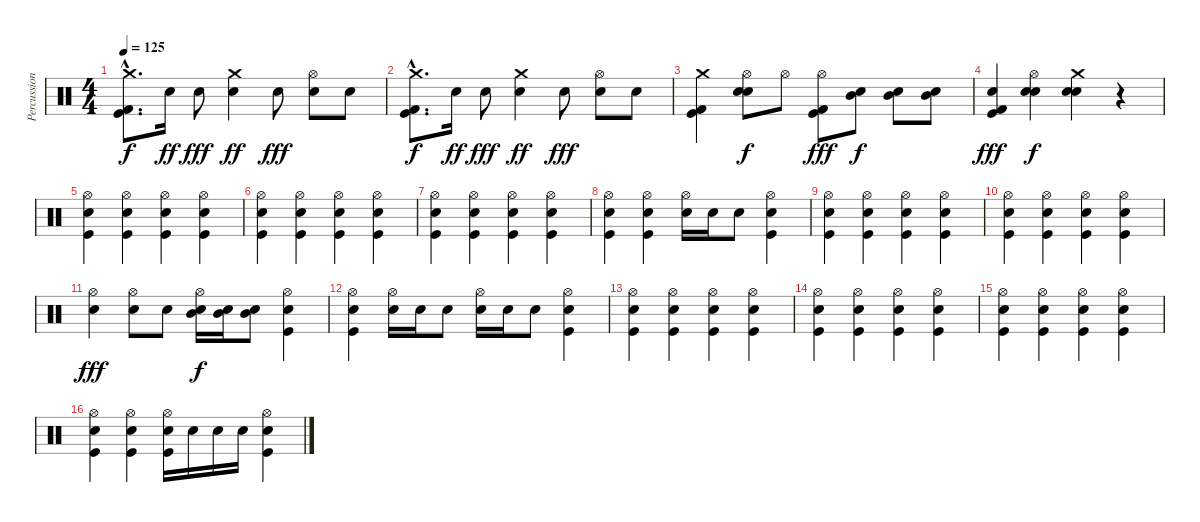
\track ("Percussion" "Percussion") {instrument percussion}
\staff {score}
\articulation defaults
\ts (4 4)
\tempo 125
\clef neutral
\ks c
("Crash medium (hit)"{hac} "Kick (hit)"{hac} "Kick (hit) 2"{hac}).8{d dy f} "Snare (hit) 2".16{dy ff} "Electric Snare (hit)".8{dy fff} ("Crash medium (hit)" "Electric Snare (hit)").4{dy ff} "Snare (hit) 2".8{dy fff} ("Hi-Hat (open)" "Electric Snare (hit)").8 "Snare (hit) 2".8 |
("Crash medium (hit)"{hac} "Kick (hit)"{hac} "Kick (hit) 2"{hac}).8{d dy f} "Snare (hit) 2".16{dy ff} "Electric Snare (hit)".8{dy fff} ("Crash medium (hit)" "Electric Snare (hit)").4{dy ff} "Snare (hit) 2".8{dy fff} ("Hi-Hat (open)" "Electric Snare (hit)").8 "Snare (hit) 2".8 |
("Crash medium (hit)" "Kick (hit)" "Kick (hit) 2").4 ("Hi-Hat (open)" "Snare (hit) 2" "Electric Snare (hit)").8{dy f} "Hi-Hat (open)".8 ("Hi-Hat (open)" "Kick (hit)" "Kick (hit) 2").8{dy fff} ("Mid Tom (hit)" "Snare (hit) 2").8{dy f} ("Mid Tom (hit)" "Snare (hit) 2").8 ("Mid Tom (hit)" "Snare (hit) 2").8 |
("Snare (hit) 2" "Kick (hit)" "Kick (hit) 2").4{dy fff} ("Hi-Hat (open)" "Snare (hit) 2" "Electric Snare (hit)").4{dy f} ("Crash medium (hit)" "Snare (hit) 2" "Electric Snare (hit)").4 r.4 |
("Hi-Hat (open)" "Snare (hit) 2" "Kick (hit)").4 ("Hi-Hat (open)" "Snare (hit) 2" "Kick (hit)").4 ("Hi-Hat (open)" "Snare (hit) 2" "Kick (hit)").4 ("Hi-Hat (open)" "Snare (hit) 2" "Kick (hit)").4 |
("Hi-Hat (open)" "Snare (hit) 2" "Kick (hit)").4 ("Hi-Hat (open)" "Snare (hit) 2" "Kick (hit)").4 ("Hi-Hat (open)" "Snare (hit) 2" "Kick (hit)").4 ("Hi-Hat (open)" "Snare (hit) 2" "Kick (hit)").4 |
("Hi-Hat (open)" "Snare (hit) 2" "Kick (hit)").4 ("Hi-Hat (open)" "Snare (hit) 2" "Kick (hit)").4 ("Hi-Hat (open)" "Snare (hit) 2" "Kick (hit)").4 ("Hi-Hat (open)" "Snare (hit) 2" "Kick (hit)").4 |
("Hi-Hat (open)" "Snare (hit) 2" "Kick (hit)").4 ("Hi-Hat (open)" "Snare (hit) 2" "Kick (hit)").4 ("Hi-Hat (open)" "Snare (hit) 2").16 "Snare (hit) 2".16 "Snare (hit) 2".8 ("Hi-Hat (open)" "Snare (hit) 2" "Kick (hit)").4 |
("Hi-Hat (open)" "Snare (hit) 2" "Kick (hit)").4 ("Hi-Hat (open)" "Snare (hit) 2" "Kick (hit)").4 ("Hi-Hat (open)" "Snare (hit) 2" "Kick (hit)").4 ("Hi-Hat (open)" "Snare (hit) 2" "Kick (hit)").4 |
("Hi-Hat (open)" "Snare (hit) 2" "Kick (hit)").4 ("Hi-Hat (open)" "Snare (hit) 2" "Kick (hit)").4 ("Hi-Hat (open)" "Snare (hit) 2" "Kick (hit)").4 ("Hi-Hat (open)" "Snare (hit) 2" "Kick (hit)").4 |
("Hi-Hat (open)" "Electric Snare (hit)").4{dy fff} ("Hi-Hat (open)" "Electric Snare (hit)").8 "Electric Snare (hit)".8 ("Hi-Hat (open)" "Mid Tom (hit)" "Snare (hit) 2").16{dy f} ("Mid Tom (hit)" "Snare (hit) 2").16 ("Mid Tom (hit)" "Snare (hit) 2").8 ("Hi-Hat (open)" "Snare (hit) 2" "Kick (hit)").4 |
("Hi-Hat (open)" "Snare (hit) 2" "Kick (hit)").4 ("Hi-Hat (open)" "Snare (hit) 2").16 "Snare (hit) 2".16 "Snare (hit) 2".8 ("Hi-Hat (open)" "Snare (hit) 2").16 "Snare (hit) 2".16 "Snare (hit) 2".8 ("Hi-Hat (open)" "Snare (hit) 2" "Kick (hit)").4 |
("Hi-Hat (open)" "Snare (hit) 2" "Kick (hit)").4 ("Hi-Hat (open)" "Snare (hit) 2" "Kick (hit)").4 ("Hi-Hat (open)" "Snare (hit) 2" "Kick (hit)").4 ("Hi-Hat (open)" "Snare (hit) 2" "Kick (hit)").4 |
("Hi-Hat (open)" "Snare (hit) 2" "Kick (hit)").4 ("Hi-Hat (open)" "Snare (hit) 2" "Kick (hit)").4 ("Hi-Hat (open)" "Snare (hit) 2" "Kick (hit)").4 ("Hi-Hat (open)" "Snare (hit) 2" "Kick (hit)").4 |
("Hi-Hat (open)" "Snare (hit) 2" "Kick (hit)").4 ("Hi-Hat (open)" "Snare (hit) 2" "Kick (hit)").4 ("Hi-Hat (open)" "Snare (hit) 2" "Kick (hit)").4 ("Hi-Hat (open)" "Snare (hit) 2" "Kick (hit)").4 |
("Hi-Hat (open)" "Snare (hit) 2" "Kick (hit)").4 ("Hi-Hat (open)" "Snare (hit) 2" "Kick (hit)").4 ("Hi-Hat (open)" "Snare (hit) 2" "Kick (hit)").16 "Snare (hit) 2".16 "Snare (hit) 2".16 "Snare (hit) 2".16 ("Hi-Hat (open)" "Snare (hit) 2" "Kick (hit)").4
